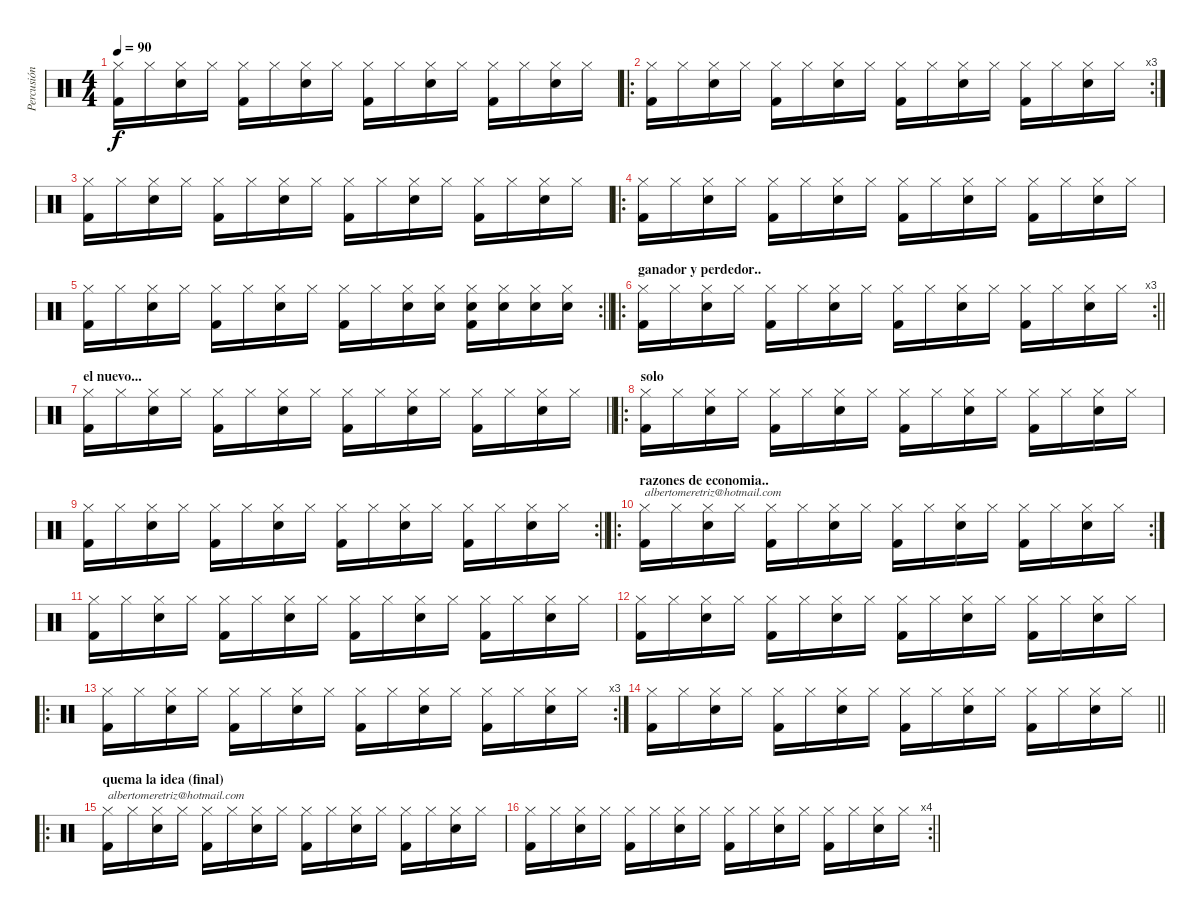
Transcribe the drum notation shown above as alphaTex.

\track ("Percusión" "Percusión") {instrument percussion}
\staff {score}
\articulation defaults
\ts (4 4)
\tempo 90
\clef neutral
\ks c
("Hi-Hat (closed)" "Kick (hit) 2").16{dy f} "Hi-Hat (closed)".16 ("Hi-Hat (closed)" "Electric Snare (hit)").16 "Hi-Hat (closed)".16 ("Hi-Hat (closed)" "Kick (hit) 2").16 "Hi-Hat (closed)".16 ("Hi-Hat (closed)" "Electric Snare (hit)").16 "Hi-Hat (closed)".16 ("Hi-Hat (closed)" "Kick (hit) 2").16 "Hi-Hat (closed)".16 ("Hi-Hat (closed)" "Electric Snare (hit)").16 "Hi-Hat (closed)".16 ("Hi-Hat (closed)" "Kick (hit) 2").16 "Hi-Hat (closed)".16 ("Hi-Hat (closed)" "Electric Snare (hit)").16 "Hi-Hat (closed)".16 |
\ro
\rc 3
("Hi-Hat (closed)" "Kick (hit) 2").16 "Hi-Hat (closed)".16 ("Hi-Hat (closed)" "Electric Snare (hit)").16 "Hi-Hat (closed)".16 ("Hi-Hat (closed)" "Kick (hit) 2").16 "Hi-Hat (closed)".16 ("Hi-Hat (closed)" "Electric Snare (hit)").16 "Hi-Hat (closed)".16 ("Hi-Hat (closed)" "Kick (hit) 2").16 "Hi-Hat (closed)".16 ("Hi-Hat (closed)" "Electric Snare (hit)").16 "Hi-Hat (closed)".16 ("Hi-Hat (closed)" "Kick (hit) 2").16 "Hi-Hat (closed)".16 ("Hi-Hat (closed)" "Electric Snare (hit)").16 "Hi-Hat (closed)".16 |
("Hi-Hat (closed)" "Kick (hit) 2").16 "Hi-Hat (closed)".16 ("Hi-Hat (closed)" "Electric Snare (hit)").16 "Hi-Hat (closed)".16 ("Hi-Hat (closed)" "Kick (hit) 2").16 "Hi-Hat (closed)".16 ("Hi-Hat (closed)" "Electric Snare (hit)").16 "Hi-Hat (closed)".16 ("Hi-Hat (closed)" "Kick (hit) 2").16 "Hi-Hat (closed)".16 ("Hi-Hat (closed)" "Electric Snare (hit)").16 "Hi-Hat (closed)".16 ("Hi-Hat (closed)" "Kick (hit) 2").16 "Hi-Hat (closed)".16 ("Hi-Hat (closed)" "Electric Snare (hit)").16 "Hi-Hat (closed)".16 |
\ro
("Hi-Hat (closed)" "Kick (hit) 2").16 "Hi-Hat (closed)".16 ("Hi-Hat (closed)" "Electric Snare (hit)").16 "Hi-Hat (closed)".16 ("Hi-Hat (closed)" "Kick (hit) 2").16 "Hi-Hat (closed)".16 ("Hi-Hat (closed)" "Electric Snare (hit)").16 "Hi-Hat (closed)".16 ("Hi-Hat (closed)" "Kick (hit) 2").16 "Hi-Hat (closed)".16 ("Hi-Hat (closed)" "Electric Snare (hit)").16 "Hi-Hat (closed)".16 ("Hi-Hat (closed)" "Kick (hit) 2").16 "Hi-Hat (closed)".16 ("Hi-Hat (closed)" "Electric Snare (hit)").16 "Hi-Hat (closed)".16 |
\rc 2
\barLineRight lightlight
("Hi-Hat (closed)" "Kick (hit) 2").16 "Hi-Hat (closed)".16 ("Hi-Hat (closed)" "Electric Snare (hit)").16 "Hi-Hat (closed)".16 ("Hi-Hat (closed)" "Kick (hit) 2").16 "Hi-Hat (closed)".16 ("Hi-Hat (closed)" "Electric Snare (hit)").16 "Hi-Hat (closed)".16 ("Hi-Hat (closed)" "Kick (hit) 2").16 "Hi-Hat (closed)".16 ("Hi-Hat (closed)" "Electric Snare (hit)").16 ("Hi-Hat (closed)" "Electric Snare (hit)").16 ("Hi-Hat (closed)" "Electric Snare (hit)" "Kick (hit) 2").16 ("Hi-Hat (closed)" "Electric Snare (hit)").16 ("Hi-Hat (closed)" "Electric Snare (hit)").16 ("Hi-Hat (closed)" "Electric Snare (hit)").16 |
\ro
\rc 3
\section ("" "ganador y perdedor..")
\barLineRight lightlight
("Hi-Hat (closed)" "Kick (hit) 2").16 "Hi-Hat (closed)".16 ("Hi-Hat (closed)" "Electric Snare (hit)").16 "Hi-Hat (closed)".16 ("Hi-Hat (closed)" "Kick (hit) 2").16 "Hi-Hat (closed)".16 ("Hi-Hat (closed)" "Electric Snare (hit)").16 "Hi-Hat (closed)".16 ("Hi-Hat (closed)" "Kick (hit) 2").16 "Hi-Hat (closed)".16 ("Hi-Hat (closed)" "Electric Snare (hit)").16 "Hi-Hat (closed)".16 ("Hi-Hat (closed)" "Kick (hit) 2").16 "Hi-Hat (closed)".16 ("Hi-Hat (closed)" "Electric Snare (hit)").16 "Hi-Hat (closed)".16 |
\section ("" "el nuevo...")
\barLineRight lightlight
("Hi-Hat (closed)" "Kick (hit) 2").16 "Hi-Hat (closed)".16 ("Hi-Hat (closed)" "Electric Snare (hit)").16 "Hi-Hat (closed)".16 ("Hi-Hat (closed)" "Kick (hit) 2").16 "Hi-Hat (closed)".16 ("Hi-Hat (closed)" "Electric Snare (hit)").16 "Hi-Hat (closed)".16 ("Hi-Hat (closed)" "Kick (hit) 2").16 "Hi-Hat (closed)".16 ("Hi-Hat (closed)" "Electric Snare (hit)").16 "Hi-Hat (closed)".16 ("Hi-Hat (closed)" "Kick (hit) 2").16 "Hi-Hat (closed)".16 ("Hi-Hat (closed)" "Electric Snare (hit)").16 "Hi-Hat (closed)".16 |
\ro
\section ("" "solo")
("Hi-Hat (closed)" "Kick (hit) 2").16 "Hi-Hat (closed)".16 ("Hi-Hat (closed)" "Electric Snare (hit)").16 "Hi-Hat (closed)".16 ("Hi-Hat (closed)" "Kick (hit) 2").16 "Hi-Hat (closed)".16 ("Hi-Hat (closed)" "Electric Snare (hit)").16 "Hi-Hat (closed)".16 ("Hi-Hat (closed)" "Kick (hit) 2").16 "Hi-Hat (closed)".16 ("Hi-Hat (closed)" "Electric Snare (hit)").16 "Hi-Hat (closed)".16 ("Hi-Hat (closed)" "Kick (hit) 2").16 "Hi-Hat (closed)".16 ("Hi-Hat (closed)" "Electric Snare (hit)").16 "Hi-Hat (closed)".16 |
\rc 2
\barLineRight lightlight
("Hi-Hat (closed)" "Kick (hit) 2").16 "Hi-Hat (closed)".16 ("Hi-Hat (closed)" "Electric Snare (hit)").16 "Hi-Hat (closed)".16 ("Hi-Hat (closed)" "Kick (hit) 2").16 "Hi-Hat (closed)".16 ("Hi-Hat (closed)" "Electric Snare (hit)").16 "Hi-Hat (closed)".16 ("Hi-Hat (closed)" "Kick (hit) 2").16 "Hi-Hat (closed)".16 ("Hi-Hat (closed)" "Electric Snare (hit)").16 "Hi-Hat (closed)".16 ("Hi-Hat (closed)" "Kick (hit) 2").16 "Hi-Hat (closed)".16 ("Hi-Hat (closed)" "Electric Snare (hit)").16 "Hi-Hat (closed)".16 |
\ro
\rc 2
\section ("" "razones de economia..")
("Hi-Hat (closed)" "Kick (hit) 2").16{txt "albertomeretriz@hotmail.com"} "Hi-Hat (closed)".16 ("Hi-Hat (closed)" "Electric Snare (hit)").16 "Hi-Hat (closed)".16 ("Hi-Hat (closed)" "Kick (hit) 2").16 "Hi-Hat (closed)".16 ("Hi-Hat (closed)" "Electric Snare (hit)").16 "Hi-Hat (closed)".16 ("Hi-Hat (closed)" "Kick (hit) 2").16 "Hi-Hat (closed)".16 ("Hi-Hat (closed)" "Electric Snare (hit)").16 "Hi-Hat (closed)".16 ("Hi-Hat (closed)" "Kick (hit) 2").16 "Hi-Hat (closed)".16 ("Hi-Hat (closed)" "Electric Snare (hit)").16 "Hi-Hat (closed)".16 |
("Hi-Hat (closed)" "Kick (hit) 2").16 "Hi-Hat (closed)".16 ("Hi-Hat (closed)" "Electric Snare (hit)").16 "Hi-Hat (closed)".16 ("Hi-Hat (closed)" "Kick (hit) 2").16 "Hi-Hat (closed)".16 ("Hi-Hat (closed)" "Electric Snare (hit)").16 "Hi-Hat (closed)".16 ("Hi-Hat (closed)" "Kick (hit) 2").16 "Hi-Hat (closed)".16 ("Hi-Hat (closed)" "Electric Snare (hit)").16 "Hi-Hat (closed)".16 ("Hi-Hat (closed)" "Kick (hit) 2").16 "Hi-Hat (closed)".16 ("Hi-Hat (closed)" "Electric Snare (hit)").16 "Hi-Hat (closed)".16 |
("Hi-Hat (closed)" "Kick (hit) 2").16 "Hi-Hat (closed)".16 ("Hi-Hat (closed)" "Electric Snare (hit)").16 "Hi-Hat (closed)".16 ("Hi-Hat (closed)" "Kick (hit) 2").16 "Hi-Hat (closed)".16 ("Hi-Hat (closed)" "Electric Snare (hit)").16 "Hi-Hat (closed)".16 ("Hi-Hat (closed)" "Kick (hit) 2").16 "Hi-Hat (closed)".16 ("Hi-Hat (closed)" "Electric Snare (hit)").16 "Hi-Hat (closed)".16 ("Hi-Hat (closed)" "Kick (hit) 2").16 "Hi-Hat (closed)".16 ("Hi-Hat (closed)" "Electric Snare (hit)").16 "Hi-Hat (closed)".16 |
\ro
\rc 3
("Hi-Hat (closed)" "Kick (hit) 2").16 "Hi-Hat (closed)".16 ("Hi-Hat (closed)" "Electric Snare (hit)").16 "Hi-Hat (closed)".16 ("Hi-Hat (closed)" "Kick (hit) 2").16 "Hi-Hat (closed)".16 ("Hi-Hat (closed)" "Electric Snare (hit)").16 "Hi-Hat (closed)".16 ("Hi-Hat (closed)" "Kick (hit) 2").16 "Hi-Hat (closed)".16 ("Hi-Hat (closed)" "Electric Snare (hit)").16 "Hi-Hat (closed)".16 ("Hi-Hat (closed)" "Kick (hit) 2").16 "Hi-Hat (closed)".16 ("Hi-Hat (closed)" "Electric Snare (hit)").16 "Hi-Hat (closed)".16 |
\barLineRight lightlight
("Hi-Hat (closed)" "Kick (hit) 2").16 "Hi-Hat (closed)".16 ("Hi-Hat (closed)" "Electric Snare (hit)").16 "Hi-Hat (closed)".16 ("Hi-Hat (closed)" "Kick (hit) 2").16 "Hi-Hat (closed)".16 ("Hi-Hat (closed)" "Electric Snare (hit)").16 "Hi-Hat (closed)".16 ("Hi-Hat (closed)" "Kick (hit) 2").16 "Hi-Hat (closed)".16 ("Hi-Hat (closed)" "Electric Snare (hit)").16 "Hi-Hat (closed)".16 ("Hi-Hat (closed)" "Kick (hit) 2").16 "Hi-Hat (closed)".16 ("Hi-Hat (closed)" "Electric Snare (hit)").16 "Hi-Hat (closed)".16 |
\ro
\section ("" "quema la idea (final)")
("Hi-Hat (closed)" "Kick (hit) 2").16{txt "albertomeretriz@hotmail.com"} "Hi-Hat (closed)".16 ("Hi-Hat (closed)" "Electric Snare (hit)").16 "Hi-Hat (closed)".16 ("Hi-Hat (closed)" "Kick (hit) 2").16 "Hi-Hat (closed)".16 ("Hi-Hat (closed)" "Electric Snare (hit)").16 "Hi-Hat (closed)".16 ("Hi-Hat (closed)" "Kick (hit) 2").16 "Hi-Hat (closed)".16 ("Hi-Hat (closed)" "Electric Snare (hit)").16 "Hi-Hat (closed)".16 ("Hi-Hat (closed)" "Kick (hit) 2").16 "Hi-Hat (closed)".16 ("Hi-Hat (closed)" "Electric Snare (hit)").16 "Hi-Hat (closed)".16 |
\rc 4
\barLineRight lightlight
("Hi-Hat (closed)" "Kick (hit) 2").16 "Hi-Hat (closed)".16 ("Hi-Hat (closed)" "Electric Snare (hit)").16 "Hi-Hat (closed)".16 ("Hi-Hat (closed)" "Kick (hit) 2").16 "Hi-Hat (closed)".16 ("Hi-Hat (closed)" "Electric Snare (hit)").16 "Hi-Hat (closed)".16 ("Hi-Hat (closed)" "Kick (hit) 2").16 "Hi-Hat (closed)".16 ("Hi-Hat (closed)" "Electric Snare (hit)").16 "Hi-Hat (closed)".16 ("Hi-Hat (closed)" "Kick (hit) 2").16 "Hi-Hat (closed)".16 ("Hi-Hat (closed)" "Electric Snare (hit)").16 "Hi-Hat (closed)".16
